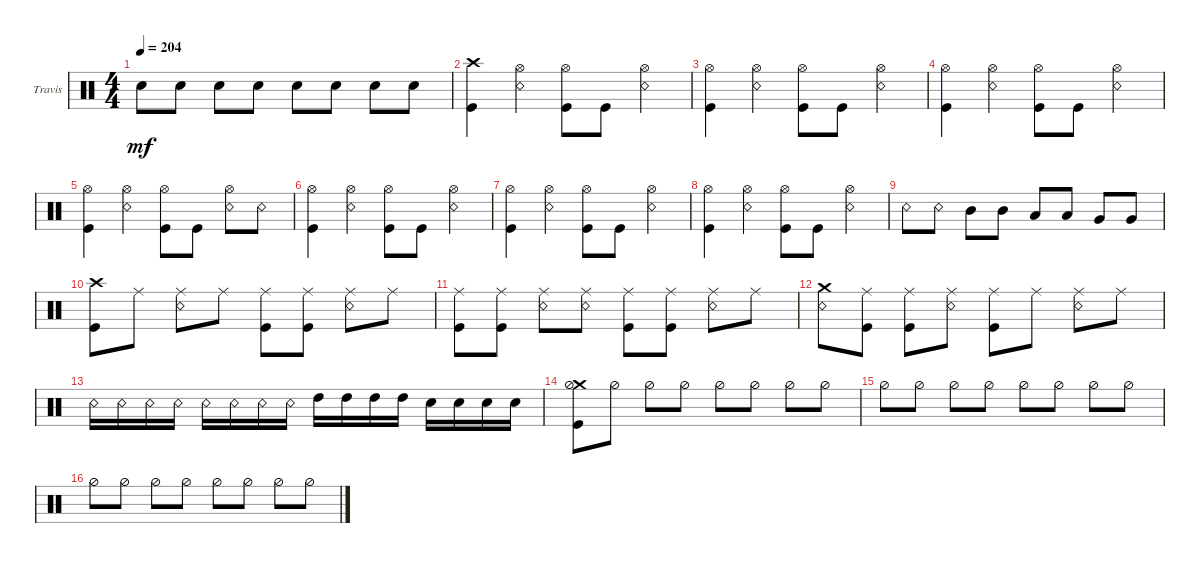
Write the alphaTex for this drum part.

\defaultSystemsLayout 4
\bracketExtendMode groupsimilarinstruments
\firstSystemTrackNameOrientation horizontal
\otherSystemsTrackNameOrientation horizontal
\track ("Travis Barker" "Travis") {instrument percussion}
\staff {score}
\articulation defaults
\ts (4 4)
\tempo 204
\clef neutral
\ks c "Snare (hit) 2".8{dy mf} "Snare (hit) 2".8 "Snare (hit) 2".8 "Snare (hit) 2".8 "Snare (hit) 2".8 "Snare (hit) 2".8 "Snare (hit) 2".8 "Snare (hit) 2".8
|
("Crash high (hit)" "Kick (hit)").4 ("Hi-Hat (open)" "Snare (rim shot)").4 ("Hi-Hat (open)" "Kick (hit)").8 "Kick (hit)".8 ("Snare (rim shot)" "Hi-Hat (open)").4 |
("Kick (hit)" "Hi-Hat (open)").4 ("Hi-Hat (open)" "Snare (rim shot)").4 ("Hi-Hat (open)" "Kick (hit)").8 "Kick (hit)".8 ("Snare (rim shot)" "Hi-Hat (open)").4 |
("Kick (hit)" "Hi-Hat (open)").4 ("Hi-Hat (open)" "Snare (rim shot)").4 ("Hi-Hat (open)" "Kick (hit)").8 "Kick (hit)".8 ("Snare (rim shot)" "Hi-Hat (open)").4 |
("Kick (hit)" "Hi-Hat (open)").4 ("Hi-Hat (open)" "Snare (rim shot)").4 ("Hi-Hat (open)" "Kick (hit)").8 "Kick (hit)".8 ("Snare (rim shot)" "Hi-Hat (open)").8 "Snare (rim shot)".8 |
("Kick (hit)" "Hi-Hat (open)").4 ("Hi-Hat (open)" "Snare (rim shot)").4 ("Hi-Hat (open)" "Kick (hit)").8 "Kick (hit)".8 ("Snare (rim shot)" "Hi-Hat (open)").4 |
("Kick (hit)" "Hi-Hat (open)").4 ("Hi-Hat (open)" "Snare (rim shot)").4 ("Hi-Hat (open)" "Kick (hit)").8 "Kick (hit)".8 ("Snare (rim shot)" "Hi-Hat (open)").4 |
("Kick (hit)" "Hi-Hat (open)").4 ("Hi-Hat (open)" "Snare (rim shot)").4 ("Hi-Hat (open)" "Kick (hit)").8 "Kick (hit)".8 ("Snare (rim shot)" "Hi-Hat (open)").4 |
"Snare (rim shot)".8 "Snare (rim shot)".8 "Mid Tom (hit)".8 "Mid Tom (hit)".8 "Low Tom (hit)".8 "Low Tom (hit)".8 "Very Low Tom (hit)".8 "Very Low Tom (hit)".8 |
("Kick (hit)" "Crash high (hit)").8 "Ride (middle)".8 ("Ride (middle)" "Snare (rim shot)").8 "Ride (middle)".8 ("Ride (middle)" "Kick (hit)").8 ("Ride (middle)" "Kick (hit)").8 ("Ride (middle)" "Snare (rim shot)").8 "Ride (middle)".8 |
("Kick (hit)" "Ride (middle)").8 ("Ride (middle)" "Kick (hit)").8 ("Ride (middle)" "Snare (rim shot)").8 ("Ride (middle)" "Snare (rim shot)").8 ("Ride (middle)" "Kick (hit)").8 ("Ride (middle)" "Kick (hit)").8 ("Ride (middle)" "Snare (rim shot)").8 "Ride (middle)".8 |
("Crash medium (hit)" "Snare (rim shot)").8 ("Ride (middle)" "Kick (hit)").8 ("Ride (middle)" "Kick (hit)").8 ("Ride (middle)" "Snare (rim shot)").8 ("Ride (middle)" "Kick (hit)").8 "Ride (middle)".8 ("Ride (middle)" "Snare (rim shot)").8 "Ride (middle)".8 |
"Snare (rim shot)".16 "Snare (rim shot)".16 "Snare (rim shot)".16 "Snare (rim shot)".16 "Snare (rim shot)".16 "Snare (rim shot)".16 "Snare (rim shot)".16 "Snare (rim shot)".16 "High Tom (hit)".16 "High Tom (hit)".16 "High Tom (hit)".16 "High Tom (hit)".16 "Snare (hit) 2".16 "Snare (hit) 2".16 "Snare (hit) 2".16 "Snare (hit) 2".16 |
("Crash medium (hit)" "Hi-Hat (half)" "Kick (hit)").8 "Hi-Hat (half)".8 "Hi-Hat (half)".8 "Hi-Hat (half)".8 "Hi-Hat (half)".8 "Hi-Hat (half)".8 "Hi-Hat (half)".8 "Hi-Hat (half)".8 |
"Hi-Hat (half)".8 "Hi-Hat (half)".8 "Hi-Hat (half)".8 "Hi-Hat (half)".8 "Hi-Hat (half)".8 "Hi-Hat (half)".8 "Hi-Hat (half)".8 "Hi-Hat (half)".8 |
"Hi-Hat (half)".8 "Hi-Hat (half)".8 "Hi-Hat (half)".8 "Hi-Hat (half)".8 "Hi-Hat (half)".8 "Hi-Hat (half)".8 "Hi-Hat (half)".8 "Hi-Hat (half)".8
